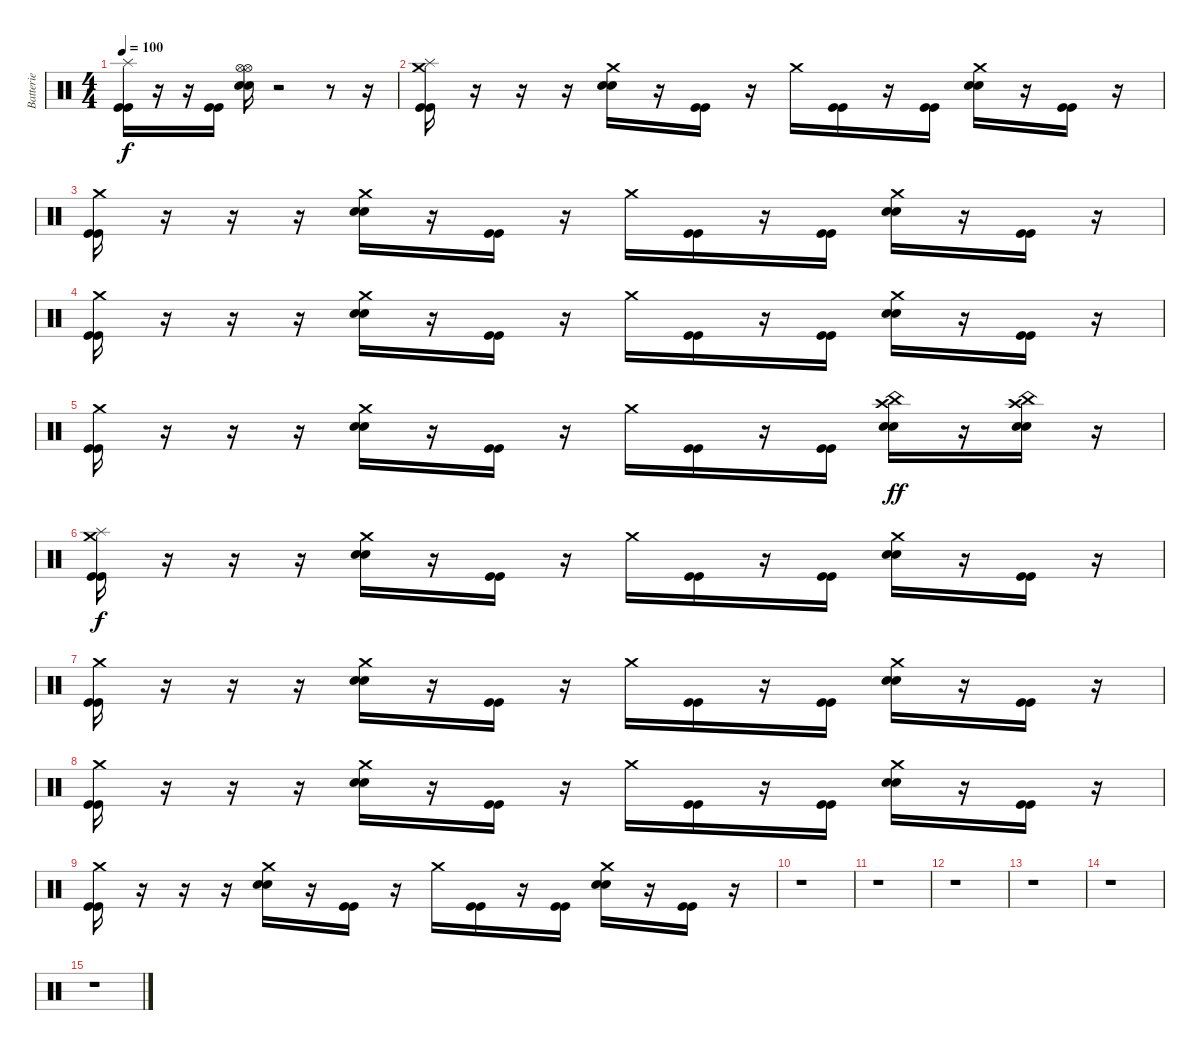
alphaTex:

\track ("Batterie" "Batterie") {instrument percussion}
\staff {score}
\articulation defaults
\ts (4 4)
\tempo 100
\clef neutral
\ks c
("Splash (hit)" "Kick (hit)" "Kick (hit)").16{dy f} r.16 r.16 ("Kick (hit)" "Kick (hit)").16 ("Hi-Hat (open)" "Hi-Hat (open)" "Electric Snare (hit)" "Electric Snare (hit)").16 r.2 r.8 r.16 |
("Crash medium (hit)" "Splash (hit)" "Kick (hit)" "Kick (hit)").16 r.16 r.16 r.16 ("Crash medium (hit)" "Electric Snare (hit)" "Electric Snare (hit)").16 r.16 ("Kick (hit)" "Kick (hit)").16 r.16 "Crash medium (hit)".16 ("Kick (hit)" "Kick (hit)").16 r.16 ("Kick (hit)" "Kick (hit)").16 ("Crash medium (hit)" "Electric Snare (hit)" "Electric Snare (hit)").16 r.16 ("Kick (hit)" "Kick (hit)").16 r.16 |
("Crash medium (hit)" "Kick (hit)" "Kick (hit)").16 r.16 r.16 r.16 ("Crash medium (hit)" "Electric Snare (hit)" "Electric Snare (hit)").16 r.16 ("Kick (hit)" "Kick (hit)").16 r.16 "Crash medium (hit)".16 ("Kick (hit)" "Kick (hit)").16 r.16 ("Kick (hit)" "Kick (hit)").16 ("Crash medium (hit)" "Electric Snare (hit)" "Electric Snare (hit)").16 r.16 ("Kick (hit)" "Kick (hit)").16 r.16 |
("Crash medium (hit)" "Kick (hit)" "Kick (hit)").16 r.16 r.16 r.16 ("Crash medium (hit)" "Electric Snare (hit)" "Electric Snare (hit)").16 r.16 ("Kick (hit)" "Kick (hit)").16 r.16 "Crash medium (hit)".16 ("Kick (hit)" "Kick (hit)").16 r.16 ("Kick (hit)" "Kick (hit)").16 ("Crash medium (hit)" "Electric Snare (hit)" "Electric Snare (hit)").16 r.16 ("Kick (hit)" "Kick (hit)").16 r.16 |
("Crash medium (hit)" "Kick (hit)" "Kick (hit)").16 r.16 r.16 r.16 ("Crash medium (hit)" "Electric Snare (hit)" "Electric Snare (hit)").16 r.16 ("Kick (hit)" "Kick (hit)").16 r.16 "Crash medium (hit)".16 ("Kick (hit)" "Kick (hit)").16 r.16 ("Kick (hit)" "Kick (hit)").16 ("Crash high (hit)" "China (hit)" "Electric Snare (hit)" "Electric Snare (hit)").16{dy ff} r.16 ("Crash high (hit)" "China (hit)" "Electric Snare (hit)" "Electric Snare (hit)").16 r.16 |
("Crash medium (hit)" "Splash (hit)" "Kick (hit)" "Kick (hit)").16{dy f} r.16 r.16 r.16 ("Crash medium (hit)" "Electric Snare (hit)" "Electric Snare (hit)").16 r.16 ("Kick (hit)" "Kick (hit)").16 r.16 "Crash medium (hit)".16 ("Kick (hit)" "Kick (hit)").16 r.16 ("Kick (hit)" "Kick (hit)").16 ("Crash medium (hit)" "Electric Snare (hit)" "Electric Snare (hit)").16 r.16 ("Kick (hit)" "Kick (hit)").16 r.16 |
("Crash medium (hit)" "Kick (hit)" "Kick (hit)").16 r.16 r.16 r.16 ("Crash medium (hit)" "Electric Snare (hit)" "Electric Snare (hit)").16 r.16 ("Kick (hit)" "Kick (hit)").16 r.16 "Crash medium (hit)".16 ("Kick (hit)" "Kick (hit)").16 r.16 ("Kick (hit)" "Kick (hit)").16 ("Crash medium (hit)" "Electric Snare (hit)" "Electric Snare (hit)").16 r.16 ("Kick (hit)" "Kick (hit)").16 r.16 |
("Crash medium (hit)" "Kick (hit)" "Kick (hit)").16 r.16 r.16 r.16 ("Crash medium (hit)" "Electric Snare (hit)" "Electric Snare (hit)").16 r.16 ("Kick (hit)" "Kick (hit)").16 r.16 "Crash medium (hit)".16 ("Kick (hit)" "Kick (hit)").16 r.16 ("Kick (hit)" "Kick (hit)").16 ("Crash medium (hit)" "Electric Snare (hit)" "Electric Snare (hit)").16 r.16 ("Kick (hit)" "Kick (hit)").16 r.16 |
("Crash medium (hit)" "Kick (hit)" "Kick (hit)").16 r.16 r.16 r.16 ("Crash medium (hit)" "Electric Snare (hit)" "Electric Snare (hit)").16 r.16 ("Kick (hit)" "Kick (hit)").16 r.16 "Crash medium (hit)".16 ("Kick (hit)" "Kick (hit)").16 r.16 ("Kick (hit)" "Kick (hit)").16 ("Crash medium (hit)" "Electric Snare (hit)" "Electric Snare (hit)").16 r.16 ("Kick (hit)" "Kick (hit)").16 r.16 |
r.1 |
r.1 |
r.1 |
r.1 |
r.1 |
r.1
